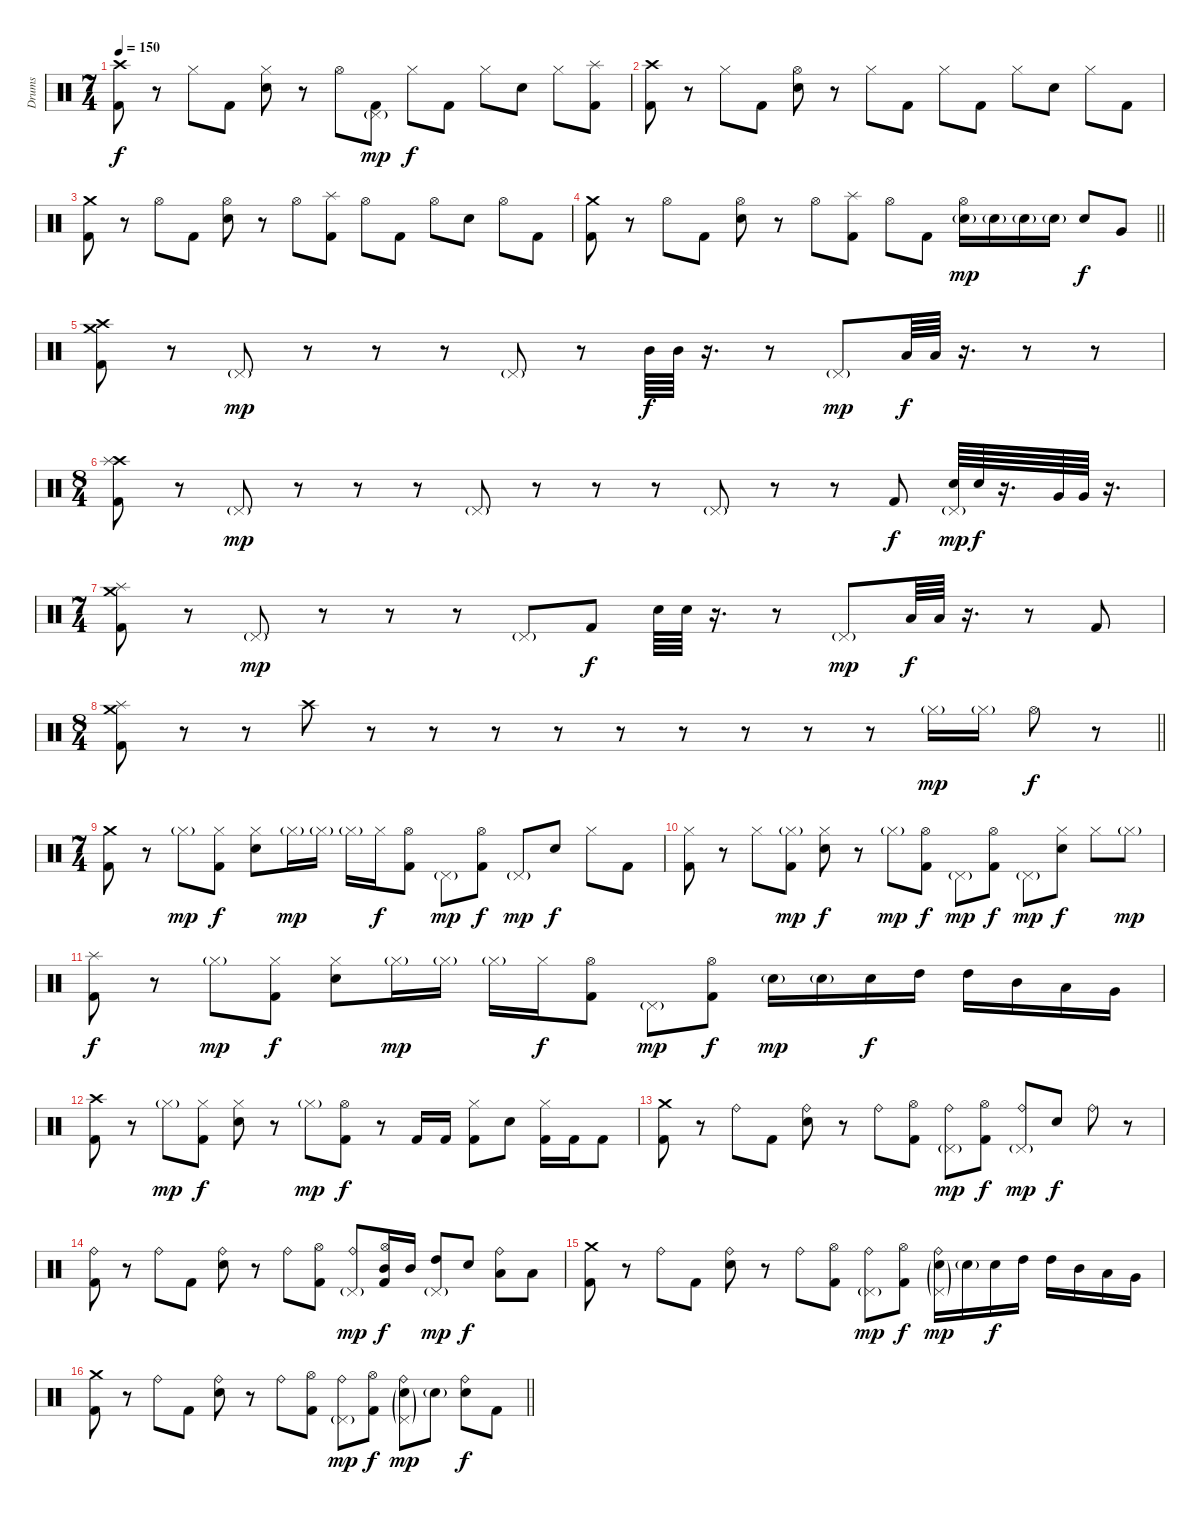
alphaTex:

\track ("Drums" "Drums") {instrument percussion}
\staff {score}
\articulation defaults
\ts (7 4)
\section ("" "")
\tempo 150
\clef neutral
\ks c
("Crash high (hit)" "Kick (hit) 2").8{dy f} r.8 "Hi-Hat (closed)".8 "Kick (hit) 2".8 ("Hi-Hat (closed)" "Electric Snare (hit)").8 r.8 "Hi-Hat (open)".8 ("Pedal Hi-Hat (hit)"{g} "Kick (hit) 2").8{dy mp} "Hi-Hat (closed)".8{dy f} "Kick (hit) 2".8 "Hi-Hat (closed)".8 "Electric Snare (hit)".8 "Hi-Hat (closed)".8 ("Splash (hit)" "Kick (hit) 2").8 |
("Crash high (hit)" "Kick (hit) 2").8 r.8 "Hi-Hat (closed)".8 "Kick (hit) 2".8 ("Hi-Hat (open)" "Electric Snare (hit)").8 r.8 "Hi-Hat (closed)".8 "Kick (hit) 2".8 "Hi-Hat (closed)".8 "Kick (hit) 2".8 "Hi-Hat (closed)".8 "Electric Snare (hit)".8 "Hi-Hat (closed)".8 "Kick (hit) 2".8 |
("Crash medium (hit)" "Kick (hit) 2").8 r.8 "Hi-Hat (open)".8 "Kick (hit) 2".8 ("Hi-Hat (open)" "Electric Snare (hit)").8 r.8 "Hi-Hat (open)".8 ("Splash (hit)" "Kick (hit) 2").8 "Hi-Hat (open)".8 "Kick (hit) 2".8 "Hi-Hat (open)".8 "Electric Snare (hit)".8 "Hi-Hat (open)".8 "Kick (hit) 2".8 |
\barLineRight lightlight
("Crash medium (hit)" "Kick (hit) 2").8 r.8 "Hi-Hat (open)".8 "Kick (hit) 2".8 ("Hi-Hat (open)" "Electric Snare (hit)").8 r.8 "Hi-Hat (open)".8 ("Splash (hit)" "Kick (hit) 2").8 "Hi-Hat (open)".8 "Kick (hit) 2".8 ("Hi-Hat (open)" "Electric Snare (hit)"{g}).16{dy mp} "Electric Snare (hit)"{g}.16 "Electric Snare (hit)"{g}.16 "Electric Snare (hit)"{g}.16 "Electric Snare (hit)".8{dy f} "Very Low Tom (hit)".8 |
\section ("" "")
("Crash medium (hit)" "Crash high (hit)" "Kick (hit) 2").8 r.8 "Pedal Hi-Hat (hit)"{g}.8{dy mp} r.8 r.8 r.8 "Pedal Hi-Hat (hit)"{g}.8 r.8 "Mid Tom (hit)".64{dy f} "Mid Tom (hit)".64 r.16{d} r.8 "Pedal Hi-Hat (hit)"{g}.8{dy mp} "Low Tom (hit)".64{dy f} "Low Tom (hit)".64 r.16{d} r.8 r.8 |
\ts (8 4)
("Crash high (hit)" "Splash (hit)" "Kick (hit) 2").8 r.8 "Pedal Hi-Hat (hit)"{g}.8{dy mp} r.8 r.8 r.8 "Pedal Hi-Hat (hit)"{g}.8 r.8 r.8 r.8 "Pedal Hi-Hat (hit)"{g}.8 r.8 r.8 "Kick (hit) 2".8{dy f} ("Pedal Hi-Hat (hit)"{g} "Electric Snare (hit)").64{dy mp} "Electric Snare (hit)".64{dy f} r.16{d} "Very Low Tom (hit)".64 "Very Low Tom (hit)".64 r.16{d} |
\ts (7 4)
("Crash medium (hit)" "Splash (hit)" "Kick (hit) 2").8 r.8 "Pedal Hi-Hat (hit)"{g}.8{dy mp} r.8 r.8 r.8 "Pedal Hi-Hat (hit)"{g}.8 "Kick (hit) 2".8{dy f} "Electric Snare (hit)".64 "Electric Snare (hit)".64 r.16{d} r.8 "Pedal Hi-Hat (hit)"{g}.8{dy mp} "Low Tom (hit)".64{dy f} "Low Tom (hit)".64 r.16{d} r.8 "Kick (hit) 2".8 |
\ts (8 4)
\barLineRight lightlight
("Crash medium (hit)" "Splash (hit)" "Kick (hit) 2").8 r.8 r.8 "Crash high (hit)".8 r.8 r.8 r.8 r.8 r.8 r.8 r.8 r.8 r.8 "Hi-Hat (closed)"{g}.16{dy mp} "Hi-Hat (closed)"{g}.16 "Hi-Hat (open)".8{dy f} r.8 |
\ts (7 4)
\section ("" "")
("Crash medium (hit)" "Kick (hit) 2").8 r.8 "Hi-Hat (closed)"{g}.8{dy mp} ("Hi-Hat (closed)" "Kick (hit) 2").8{dy f} ("Hi-Hat (closed)" "Electric Snare (hit)").8 "Hi-Hat (closed)"{g}.16{dy mp} "Hi-Hat (closed)"{g}.16 "Hi-Hat (closed)"{g}.16 "Hi-Hat (closed)".16{dy f} ("Hi-Hat (open)" "Kick (hit) 2").8 "Pedal Hi-Hat (hit)"{g}.8{dy mp} ("Hi-Hat (open)" "Kick (hit) 2").8{dy f} "Pedal Hi-Hat (hit)"{g}.8{dy mp} "Electric Snare (hit)".8{dy f} "Hi-Hat (closed)".8 "Kick (hit) 2".8 |
("Hi-Hat (closed)" "Kick (hit) 2").8 r.8 "Hi-Hat (closed)".8 ("Hi-Hat (closed)"{g} "Kick (hit) 2").8{dy mp} ("Hi-Hat (closed)" "Electric Snare (hit)").8{dy f} r.8 "Hi-Hat (closed)"{g}.8{dy mp} ("Hi-Hat (open)" "Kick (hit) 2").8{dy f} "Pedal Hi-Hat (hit)"{g}.8{dy mp} ("Hi-Hat (open)" "Kick (hit) 2").8{dy f} "Pedal Hi-Hat (hit)"{g}.8{dy mp} ("Hi-Hat (closed)" "Electric Snare (hit)").8{dy f} "Hi-Hat (closed)".8 "Hi-Hat (closed)"{g}.8{dy mp} |
("Splash (hit)" "Kick (hit) 2").8{dy f} r.8 "Hi-Hat (closed)"{g}.8{dy mp} ("Hi-Hat (closed)" "Kick (hit) 2").8{dy f} ("Hi-Hat (closed)" "Electric Snare (hit)").8 "Hi-Hat (closed)"{g}.16{dy mp} "Hi-Hat (closed)"{g}.16 "Hi-Hat (closed)"{g}.16 "Hi-Hat (closed)".16{dy f} ("Hi-Hat (open)" "Kick (hit) 2").8 "Pedal Hi-Hat (hit)"{g}.8{dy mp} ("Hi-Hat (open)" "Kick (hit) 2").8{dy f} "Electric Snare (hit)"{g}.16{dy mp} "Electric Snare (hit)"{g}.16 "Electric Snare (hit)".16{dy f} "High Tom (hit)".16 "High Tom (hit)".16 "Mid Tom (hit)".16 "Low Tom (hit)".16 "Very Low Tom (hit)".16 |
("Crash high (hit)" "Kick (hit) 2").8 r.8 "Hi-Hat (closed)"{g}.8{dy mp} ("Hi-Hat (closed)" "Kick (hit) 2").8{dy f} ("Hi-Hat (closed)" "Electric Snare (hit)").8 r.8 "Hi-Hat (closed)"{g}.8{dy mp} ("Hi-Hat (open)" "Kick (hit) 2").8{dy f} r.8 "Kick (hit) 2".16 "Kick (hit) 2".16 ("Hi-Hat (closed)" "Kick (hit) 2").8 "Electric Snare (hit)".8 ("Hi-Hat (closed)" "Kick (hit) 2").16 "Kick (hit) 2".16 "Kick (hit) 2".8 |
("Crash medium (hit)" "Kick (hit) 2").8 r.8 "Ride (bell)".8 "Kick (hit) 2".8 ("Ride (bell)" "Electric Snare (hit)").8 r.8 "Ride (bell)".8 ("Hi-Hat (open)" "Kick (hit) 2").8 ("Ride (bell)" "Pedal Hi-Hat (hit)"{g}).8{dy mp} ("Hi-Hat (open)" "Kick (hit) 2").8{dy f} ("Ride (bell)" "Pedal Hi-Hat (hit)"{g}).8{dy mp} "Electric Snare (hit)".8{dy f} "Ride (bell)".8 r.8 |
("Ride (bell)" "Kick (hit) 2").8 r.8 "Ride (bell)".8 "Kick (hit) 2".8 ("Ride (bell)" "Electric Snare (hit)").8 r.8 "Ride (bell)".8 ("Hi-Hat (open)" "Kick (hit) 2").8 ("Ride (bell)" "Pedal Hi-Hat (hit)"{g}).8{dy mp} ("Mid Tom (hit)" "Hi-Hat (open)" "Kick (hit) 2").16{dy f} "Mid Tom (hit)".16 ("High Tom (hit)" "Pedal Hi-Hat (hit)"{g}).8{dy mp} "Electric Snare (hit)".8{dy f} ("Ride (bell)" "Low Tom (hit)").8 "Low Floor Tom (hit)".8 |
("Crash medium (hit)" "Kick (hit) 2").8 r.8 "Ride (bell)".8 "Kick (hit) 2".8 ("Ride (bell)" "Electric Snare (hit)").8 r.8 "Ride (bell)".8 ("Hi-Hat (open)" "Kick (hit) 2").8 ("Ride (bell)" "Pedal Hi-Hat (hit)"{g}).8{dy mp} ("Hi-Hat (open)" "Kick (hit) 2").8{dy f} ("Ride (bell)" "Pedal Hi-Hat (hit)"{g} "Electric Snare (hit)"{g}).16{dy mp} "Electric Snare (hit)"{g}.16 "Electric Snare (hit)".16{dy f} "High Tom (hit)".16 "High Tom (hit)".16 "Mid Tom (hit)".16 "Low Tom (hit)".16 "Very Low Tom (hit)".16 |
\barLineRight lightlight
("Crash medium (hit)" "Kick (hit) 2").8 r.8 "Ride (bell)".8 "Kick (hit) 2".8 ("Ride (bell)" "Electric Snare (hit)").8 r.8 "Ride (bell)".8 ("Hi-Hat (open)" "Kick (hit) 2").8 ("Ride (bell)" "Pedal Hi-Hat (hit)"{g}).8{dy mp} ("Hi-Hat (open)" "Kick (hit) 2").8{dy f} ("Ride (bell)" "Pedal Hi-Hat (hit)"{g} "Electric Snare (hit)"{g}).8{dy mp} "Electric Snare (hit)"{g}.8 ("Ride (bell)" "Electric Snare (hit)").8{dy f} "Kick (hit) 2".8
